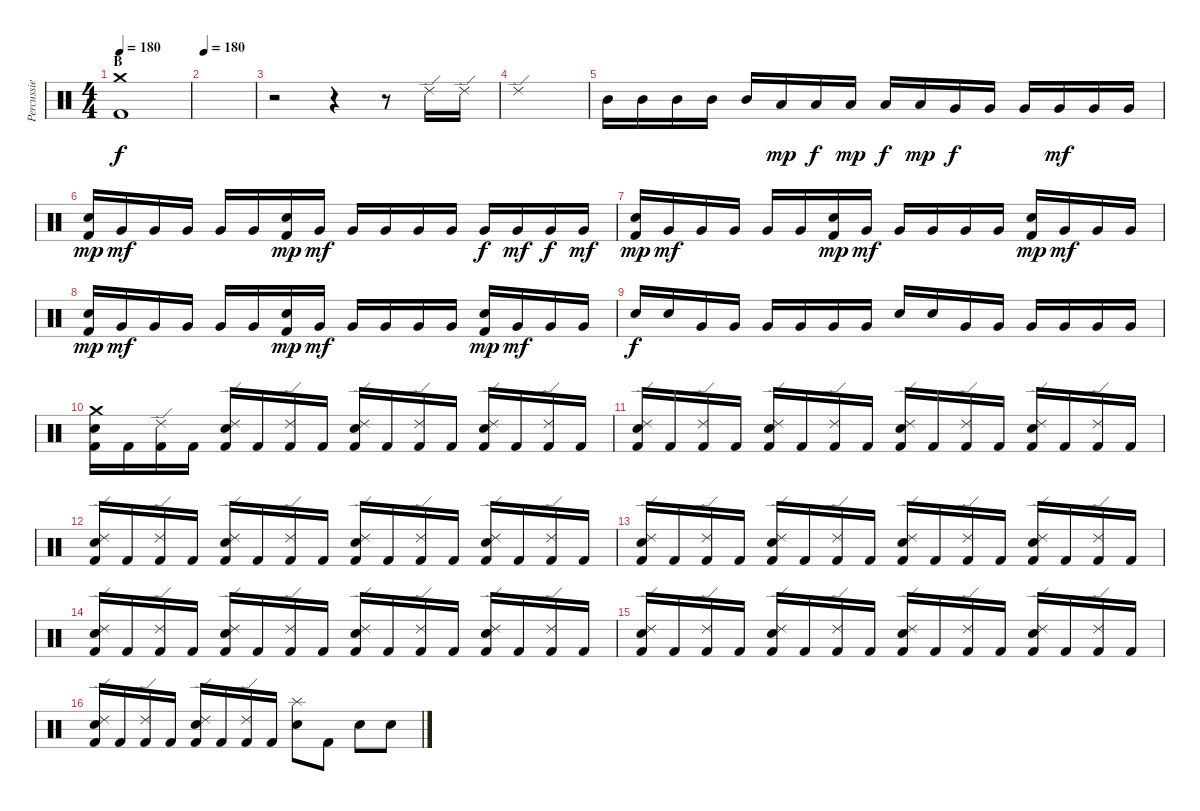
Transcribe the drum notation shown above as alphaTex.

\track ("Percussie" "Percussie") {instrument percussion}
\staff {score}
\articulation defaults
\ts (4 4)
\section ("" "B")
\tempo 180
\clef neutral
\ks c
("Crash medium (hit)" "Kick (hit) 2").1{dy f} |
\tempo 180
|
r.2 r.4 r.8 "Ride (edge) 2".16 "Ride (edge) 2".16 |
"Ride (edge) 2".1 |
"Mid Tom (hit)".16 "Mid Tom (hit)".16 "Mid Tom (hit)".16 "Mid Tom (hit)".16 "Mid Tom (hit)".16 "Low Tom (hit)".16{dy mp} "Low Tom (hit)".16{dy f} "Low Tom (hit)".16{dy mp} "Low Tom (hit)".16{dy f} "Low Tom (hit)".16{dy mp} "Very Low Tom (hit)".16{dy f} "Very Low Tom (hit)".16 "Very Low Tom (hit)".16 "Very Low Tom (hit)".16{dy mf} "Very Low Tom (hit)".16 "Very Low Tom (hit)".16 |
("Electric Snare (hit)" "Kick (hit) 2").16{dy mp} "Very Low Tom (hit)".16{dy mf} "Very Low Tom (hit)".16 "Very Low Tom (hit)".16 "Very Low Tom (hit)".16 "Very Low Tom (hit)".16 ("Electric Snare (hit)" "Kick (hit) 2").16{dy mp} "Very Low Tom (hit)".16{dy mf} "Very Low Tom (hit)".16 "Very Low Tom (hit)".16 "Very Low Tom (hit)".16 "Very Low Tom (hit)".16 "Very Low Tom (hit)".16{dy f} "Very Low Tom (hit)".16{dy mf} "Very Low Tom (hit)".16{dy f} "Very Low Tom (hit)".16{dy mf} |
("Electric Snare (hit)" "Kick (hit) 2").16{dy mp} "Very Low Tom (hit)".16{dy mf} "Very Low Tom (hit)".16 "Very Low Tom (hit)".16 "Very Low Tom (hit)".16 "Very Low Tom (hit)".16 ("Electric Snare (hit)" "Kick (hit) 2").16{dy mp} "Very Low Tom (hit)".16{dy mf} "Very Low Tom (hit)".16 "Very Low Tom (hit)".16 "Very Low Tom (hit)".16 "Very Low Tom (hit)".16 ("Electric Snare (hit)" "Kick (hit) 2").16{dy mp} "Very Low Tom (hit)".16{dy mf} "Very Low Tom (hit)".16 "Very Low Tom (hit)".16 |
("Electric Snare (hit)" "Kick (hit) 2").16{dy mp} "Very Low Tom (hit)".16{dy mf} "Very Low Tom (hit)".16 "Very Low Tom (hit)".16 "Very Low Tom (hit)".16 "Very Low Tom (hit)".16 ("Electric Snare (hit)" "Kick (hit) 2").16{dy mp} "Very Low Tom (hit)".16{dy mf} "Very Low Tom (hit)".16 "Very Low Tom (hit)".16 "Very Low Tom (hit)".16 "Very Low Tom (hit)".16 ("Electric Snare (hit)" "Kick (hit) 2").16{dy mp} "Very Low Tom (hit)".16{dy mf} "Very Low Tom (hit)".16 "Very Low Tom (hit)".16 |
"Electric Snare (hit)".16{dy f} "Electric Snare (hit)".16 "Very Low Tom (hit)".16 "Very Low Tom (hit)".16 "Very Low Tom (hit)".16 "Very Low Tom (hit)".16 "Very Low Tom (hit)".16 "Very Low Tom (hit)".16 "Electric Snare (hit)".16 "Electric Snare (hit)".16 "Very Low Tom (hit)".16 "Very Low Tom (hit)".16 "Very Low Tom (hit)".16 "Very Low Tom (hit)".16 "Very Low Tom (hit)".16 "Very Low Tom (hit)".16 |
("Crash medium (hit)" "Electric Snare (hit)" "Kick (hit) 2").16 "Kick (hit) 2".16 ("Ride (edge) 2" "Kick (hit) 2").16 "Kick (hit) 2".16 ("Ride (edge) 2" "Electric Snare (hit)" "Kick (hit) 2").16 "Kick (hit) 2".16 ("Ride (edge) 2" "Kick (hit) 2").16 "Kick (hit) 2".16 ("Ride (edge) 2" "Electric Snare (hit)" "Kick (hit) 2").16 "Kick (hit) 2".16 ("Ride (edge) 2" "Kick (hit) 2").16 "Kick (hit) 2".16 ("Ride (edge) 2" "Electric Snare (hit)" "Kick (hit) 2").16 "Kick (hit) 2".16 ("Ride (edge) 2" "Kick (hit) 2").16 "Kick (hit) 2".16 |
("Ride (edge) 2" "Electric Snare (hit)" "Kick (hit) 2").16 "Kick (hit) 2".16 ("Ride (edge) 2" "Kick (hit) 2").16 "Kick (hit) 2".16 ("Ride (edge) 2" "Electric Snare (hit)" "Kick (hit) 2").16 "Kick (hit) 2".16 ("Ride (edge) 2" "Kick (hit) 2").16 "Kick (hit) 2".16 ("Ride (edge) 2" "Electric Snare (hit)" "Kick (hit) 2").16 "Kick (hit) 2".16 ("Ride (edge) 2" "Kick (hit) 2").16 "Kick (hit) 2".16 ("Ride (edge) 2" "Electric Snare (hit)" "Kick (hit) 2").16 "Kick (hit) 2".16 ("Ride (edge) 2" "Kick (hit) 2").16 "Kick (hit) 2".16 |
("Ride (edge) 2" "Electric Snare (hit)" "Kick (hit) 2").16 "Kick (hit) 2".16 ("Ride (edge) 2" "Kick (hit) 2").16 "Kick (hit) 2".16 ("Ride (edge) 2" "Electric Snare (hit)" "Kick (hit) 2").16 "Kick (hit) 2".16 ("Ride (edge) 2" "Kick (hit) 2").16 "Kick (hit) 2".16 ("Ride (edge) 2" "Electric Snare (hit)" "Kick (hit) 2").16 "Kick (hit) 2".16 ("Ride (edge) 2" "Kick (hit) 2").16 "Kick (hit) 2".16 ("Ride (edge) 2" "Electric Snare (hit)" "Kick (hit) 2").16 "Kick (hit) 2".16 ("Ride (edge) 2" "Kick (hit) 2").16 "Kick (hit) 2".16 |
("Ride (edge) 2" "Electric Snare (hit)" "Kick (hit) 2").16 "Kick (hit) 2".16 ("Ride (edge) 2" "Kick (hit) 2").16 "Kick (hit) 2".16 ("Ride (edge) 2" "Electric Snare (hit)" "Kick (hit) 2").16 "Kick (hit) 2".16 ("Ride (edge) 2" "Kick (hit) 2").16 "Kick (hit) 2".16 ("Ride (edge) 2" "Electric Snare (hit)" "Kick (hit) 2").16 "Kick (hit) 2".16 ("Ride (edge) 2" "Kick (hit) 2").16 "Kick (hit) 2".16 ("Ride (edge) 2" "Electric Snare (hit)" "Kick (hit) 2").16 "Kick (hit) 2".16 ("Ride (edge) 2" "Kick (hit) 2").16 "Kick (hit) 2".16 |
("Ride (edge) 2" "Electric Snare (hit)" "Kick (hit) 2").16 "Kick (hit) 2".16 ("Ride (edge) 2" "Kick (hit) 2").16 "Kick (hit) 2".16 ("Ride (edge) 2" "Electric Snare (hit)" "Kick (hit) 2").16 "Kick (hit) 2".16 ("Ride (edge) 2" "Kick (hit) 2").16 "Kick (hit) 2".16 ("Ride (edge) 2" "Electric Snare (hit)" "Kick (hit) 2").16 "Kick (hit) 2".16 ("Ride (edge) 2" "Kick (hit) 2").16 "Kick (hit) 2".16 ("Ride (edge) 2" "Electric Snare (hit)" "Kick (hit) 2").16 "Kick (hit) 2".16 ("Ride (edge) 2" "Kick (hit) 2").16 "Kick (hit) 2".16 |
("Ride (edge) 2" "Electric Snare (hit)" "Kick (hit) 2").16 "Kick (hit) 2".16 ("Ride (edge) 2" "Kick (hit) 2").16 "Kick (hit) 2".16 ("Ride (edge) 2" "Electric Snare (hit)" "Kick (hit) 2").16 "Kick (hit) 2".16 ("Ride (edge) 2" "Kick (hit) 2").16 "Kick (hit) 2".16 ("Ride (edge) 2" "Electric Snare (hit)" "Kick (hit) 2").16 "Kick (hit) 2".16 ("Ride (edge) 2" "Kick (hit) 2").16 "Kick (hit) 2".16 ("Ride (edge) 2" "Electric Snare (hit)" "Kick (hit) 2").16 "Kick (hit) 2".16 ("Ride (edge) 2" "Kick (hit) 2").16 "Kick (hit) 2".16 |
("Ride (edge) 2" "Electric Snare (hit)" "Kick (hit) 2").16 "Kick (hit) 2".16 ("Ride (edge) 2" "Kick (hit) 2").16 "Kick (hit) 2".16 ("Ride (edge) 2" "Electric Snare (hit)" "Kick (hit) 2").16 "Kick (hit) 2".16 ("Ride (edge) 2" "Kick (hit) 2").16 "Kick (hit) 2".16 ("Splash (hit)" "Electric Snare (hit)").8 "Kick (hit) 2".8 "Electric Snare (hit)".8 "Electric Snare (hit)".8
